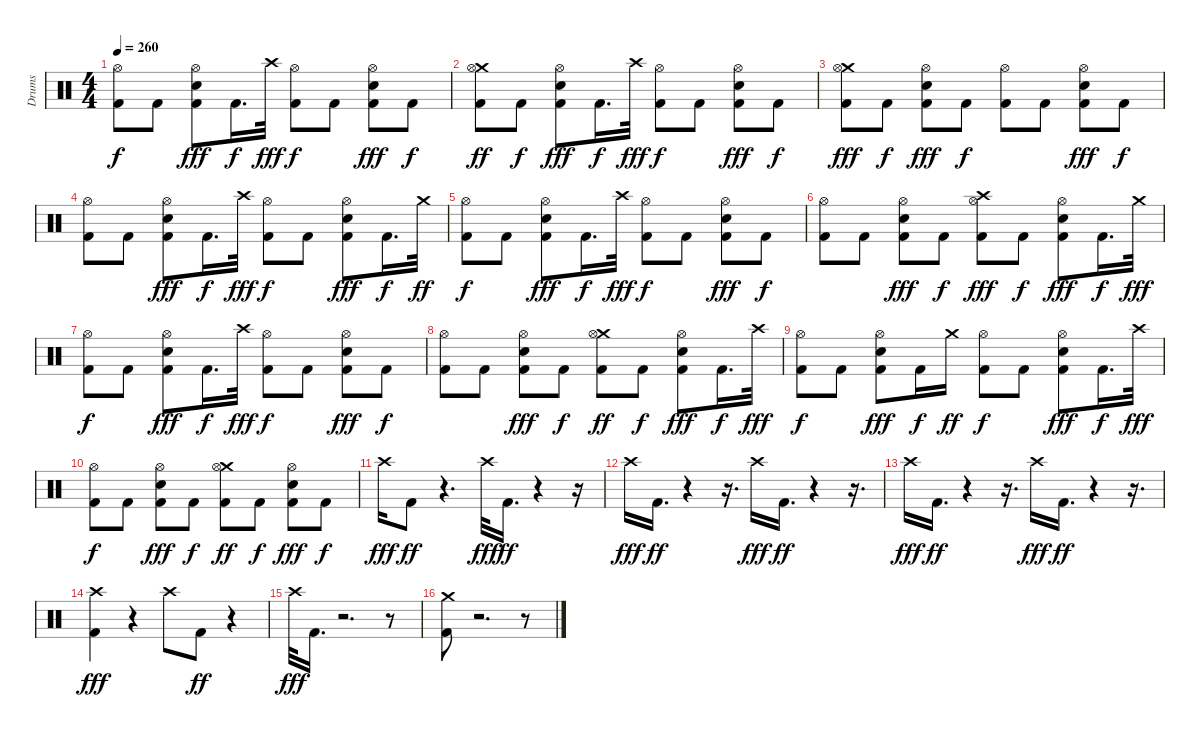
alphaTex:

\track ("Drums" "Drums") {instrument percussion}
\staff {score}
\articulation defaults
\ts (4 4)
\tempo 260
\clef neutral
\ks c
("Hi-Hat (open)" "Kick (hit) 2").8{dy f} "Kick (hit) 2".8 ("Hi-Hat (open)" "Snare (hit) 2" "Kick (hit) 2").8{dy fff} "Kick (hit) 2".16{d dy f} "Crash high (hit)".32{dy fff} ("Hi-Hat (open)" "Kick (hit) 2").8{dy f} "Kick (hit) 2".8 ("Hi-Hat (open)" "Snare (hit) 2" "Kick (hit) 2").8{dy fff} "Kick (hit) 2".8{dy f} |
("Crash medium (hit)" "Hi-Hat (open)" "Kick (hit) 2").8{dy ff} "Kick (hit) 2".8{dy f} ("Hi-Hat (open)" "Snare (hit) 2" "Kick (hit) 2").8{dy fff} "Kick (hit) 2".16{d dy f} "Crash high (hit)".32{dy fff} ("Hi-Hat (open)" "Kick (hit) 2").8{dy f} "Kick (hit) 2".8 ("Hi-Hat (open)" "Snare (hit) 2" "Kick (hit) 2").8{dy fff} "Kick (hit) 2".8{dy f} |
("Crash medium (hit)" "Hi-Hat (open)" "Kick (hit) 2").8{dy fff} "Kick (hit) 2".8{dy f} ("Hi-Hat (open)" "Snare (hit) 2" "Kick (hit) 2").8{dy fff} "Kick (hit) 2".8{dy f} ("Hi-Hat (open)" "Kick (hit) 2").8 "Kick (hit) 2".8 ("Hi-Hat (open)" "Snare (hit) 2" "Kick (hit) 2").8{dy fff} "Kick (hit) 2".8{dy f} |
("Hi-Hat (open)" "Kick (hit) 2").8 "Kick (hit) 2".8 ("Hi-Hat (open)" "Snare (hit) 2" "Kick (hit) 2").8{dy fff} "Kick (hit) 2".16{d dy f} "Crash high (hit)".32{dy fff} ("Hi-Hat (open)" "Kick (hit) 2").8{dy f} "Kick (hit) 2".8 ("Hi-Hat (open)" "Snare (hit) 2" "Kick (hit) 2").8{dy fff} "Kick (hit) 2".16{d dy f} "Crash medium (hit)".32{dy ff} |
("Hi-Hat (open)" "Kick (hit) 2").8{dy f} "Kick (hit) 2".8 ("Hi-Hat (open)" "Snare (hit) 2" "Kick (hit) 2").8{dy fff} "Kick (hit) 2".16{d dy f} "Crash high (hit)".32{dy fff} ("Hi-Hat (open)" "Kick (hit) 2").8{dy f} "Kick (hit) 2".8 ("Hi-Hat (open)" "Snare (hit) 2" "Kick (hit) 2").8{dy fff} "Kick (hit) 2".8{dy f} |
("Hi-Hat (open)" "Kick (hit) 2").8 "Kick (hit) 2".8 ("Hi-Hat (open)" "Snare (hit) 2" "Kick (hit) 2").8{dy fff} "Kick (hit) 2".8{dy f} ("Crash high (hit)" "Hi-Hat (open)" "Kick (hit) 2").8{dy fff} "Kick (hit) 2".8{dy f} ("Hi-Hat (open)" "Snare (hit) 2" "Kick (hit) 2").8{dy fff} "Kick (hit) 2".16{d dy f} "Crash medium (hit)".32{dy fff} |
("Hi-Hat (open)" "Kick (hit) 2").8{dy f} "Kick (hit) 2".8 ("Hi-Hat (open)" "Snare (hit) 2" "Kick (hit) 2").8{dy fff} "Kick (hit) 2".16{d dy f} "Crash high (hit)".32{dy fff} ("Hi-Hat (open)" "Kick (hit) 2").8{dy f} "Kick (hit) 2".8 ("Hi-Hat (open)" "Snare (hit) 2" "Kick (hit) 2").8{dy fff} "Kick (hit) 2".8{dy f} |
("Hi-Hat (open)" "Kick (hit) 2").8 "Kick (hit) 2".8 ("Hi-Hat (open)" "Snare (hit) 2" "Kick (hit) 2").8{dy fff} "Kick (hit) 2".8{dy f} ("Crash medium (hit)" "Hi-Hat (open)" "Kick (hit) 2").8{dy ff} "Kick (hit) 2".8{dy f} ("Hi-Hat (open)" "Snare (hit) 2" "Kick (hit) 2").8{dy fff} "Kick (hit) 2".16{d dy f} "Crash high (hit)".32{dy fff} |
("Hi-Hat (open)" "Kick (hit) 2").8{dy f} "Kick (hit) 2".8 ("Hi-Hat (open)" "Snare (hit) 2" "Kick (hit) 2").8{dy fff} "Kick (hit) 2".16{dy f} "Crash medium (hit)".16{dy ff} ("Hi-Hat (open)" "Kick (hit) 2").8{dy f} "Kick (hit) 2".8 ("Hi-Hat (open)" "Snare (hit) 2" "Kick (hit) 2").8{dy fff} "Kick (hit) 2".16{d dy f} "Crash high (hit)".32{dy fff} |
("Hi-Hat (open)" "Kick (hit) 2").8{dy f} "Kick (hit) 2".8 ("Hi-Hat (open)" "Snare (hit) 2" "Kick (hit) 2").8{dy fff} "Kick (hit) 2".8{dy f} ("Crash medium (hit)" "Hi-Hat (open)" "Kick (hit) 2").8{dy ff} "Kick (hit) 2".8{dy f} ("Hi-Hat (open)" "Snare (hit) 2" "Kick (hit) 2").8{dy fff} "Kick (hit) 2".8{dy f} |
"Crash high (hit)".16{dy fff} "Kick (hit) 2".8{dy ff} r.4{d} "Crash high (hit)".32{dy fff} "Kick (hit) 2".16{d dy ff} r.4 r.16 |
"Crash high (hit)".16{dy fff} "Kick (hit) 2".16{d dy ff} r.4 r.16{d} "Crash high (hit)".16{dy fff} "Kick (hit) 2".16{d dy ff} r.4 r.16{d} |
"Crash high (hit)".16{dy fff} "Kick (hit) 2".16{d dy ff} r.4 r.16{d} "Crash high (hit)".16{dy fff} "Kick (hit) 2".16{d dy ff} r.4 r.16{d} |
("Kick (hit) 2" "Crash high (hit)").4{dy fff} r.4 "Crash high (hit)".8 "Kick (hit) 2".8{dy ff} r.4 |
"Crash high (hit)".32{dy fff} "Kick (hit) 2".16{d} r.2{d} r.8 |
("Crash medium (hit)" "Kick (hit) 2").8 r.2{d} r.8
